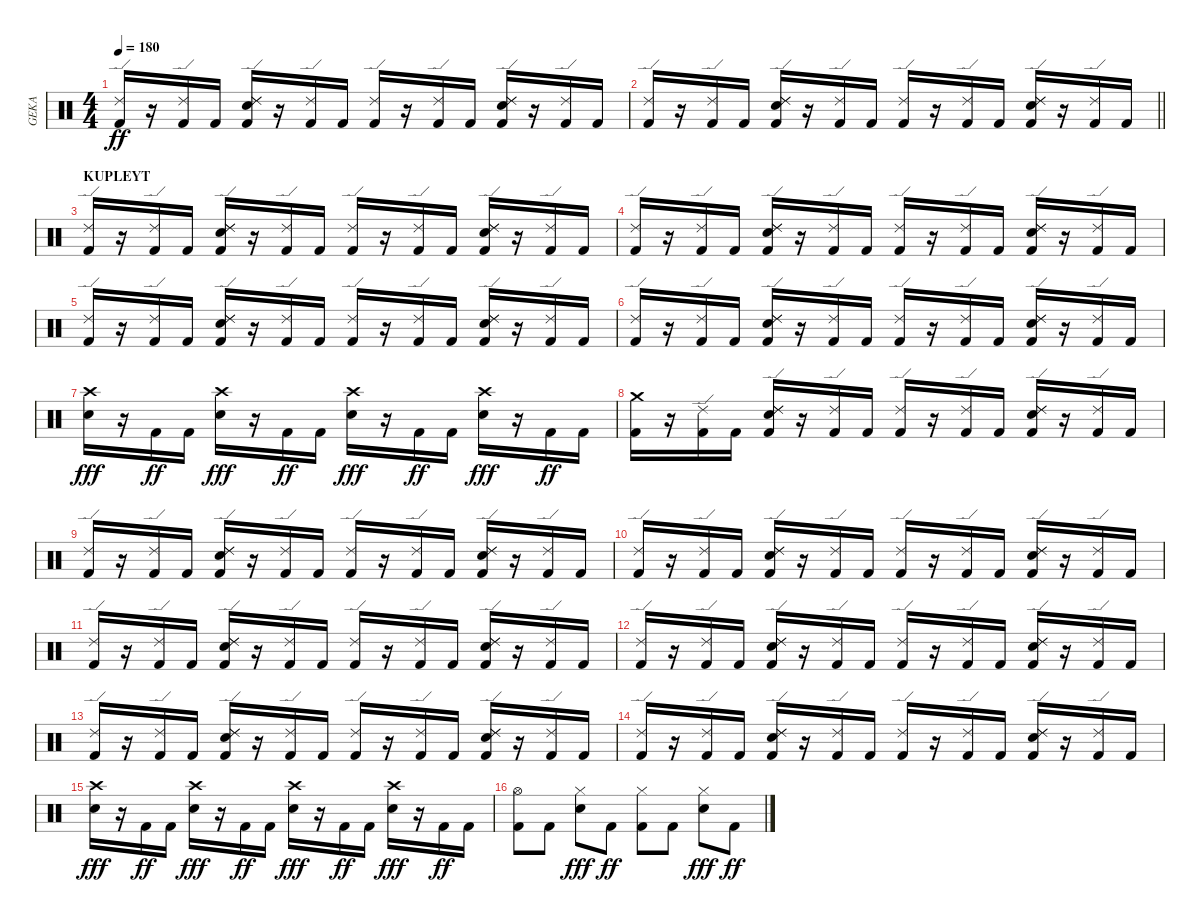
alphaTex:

\track ("GEKA" "GEKA") {instrument percussion}
\staff {score}
\articulation defaults
\ts (4 4)
\tempo 180
\clef neutral
\ks c
("Ride (edge) 2" "Kick (hit) 2").16{dy ff} r.16 ("Ride (edge) 2" "Kick (hit) 2").16 "Kick (hit) 2".16 ("Ride (edge) 2" "Snare (hit) 2" "Kick (hit) 2" "Ride (edge) 2").16 r.16 ("Ride (edge) 2" "Kick (hit) 2").16 "Kick (hit) 2".16 ("Ride (edge) 2" "Kick (hit) 2").16 r.16 ("Ride (edge) 2" "Kick (hit) 2").16 "Kick (hit) 2".16 ("Ride (edge) 2" "Snare (hit) 2" "Kick (hit) 2" "Ride (edge) 2").16 r.16 ("Ride (edge) 2" "Kick (hit) 2").16 "Kick (hit) 2".16 |
\barLineRight lightlight
("Ride (edge) 2" "Kick (hit) 2").16 r.16 ("Ride (edge) 2" "Kick (hit) 2").16 "Kick (hit) 2".16 ("Ride (edge) 2" "Snare (hit) 2" "Kick (hit) 2" "Ride (edge) 2").16 r.16 ("Ride (edge) 2" "Kick (hit) 2").16 "Kick (hit) 2".16 ("Ride (edge) 2" "Kick (hit) 2").16 r.16 ("Ride (edge) 2" "Kick (hit) 2").16 "Kick (hit) 2".16 ("Ride (edge) 2" "Snare (hit) 2" "Kick (hit) 2" "Ride (edge) 2").16 r.16 ("Ride (edge) 2" "Kick (hit) 2").16 "Kick (hit) 2".16 |
\section ("" "KUPLEYT")
("Ride (edge) 2" "Kick (hit) 2").16 r.16 ("Ride (edge) 2" "Kick (hit) 2").16 "Kick (hit) 2".16 ("Ride (edge) 2" "Snare (hit) 2" "Kick (hit) 2" "Ride (edge) 2").16 r.16 ("Ride (edge) 2" "Kick (hit) 2").16 "Kick (hit) 2".16 ("Ride (edge) 2" "Kick (hit) 2").16 r.16 ("Ride (edge) 2" "Kick (hit) 2").16 "Kick (hit) 2".16 ("Ride (edge) 2" "Snare (hit) 2" "Kick (hit) 2" "Ride (edge) 2").16 r.16 ("Ride (edge) 2" "Kick (hit) 2").16 "Kick (hit) 2".16 |
("Ride (edge) 2" "Kick (hit) 2").16 r.16 ("Ride (edge) 2" "Kick (hit) 2").16 "Kick (hit) 2".16 ("Ride (edge) 2" "Snare (hit) 2" "Kick (hit) 2" "Ride (edge) 2").16 r.16 ("Ride (edge) 2" "Kick (hit) 2").16 "Kick (hit) 2".16 ("Ride (edge) 2" "Kick (hit) 2").16 r.16 ("Ride (edge) 2" "Kick (hit) 2").16 "Kick (hit) 2".16 ("Ride (edge) 2" "Snare (hit) 2" "Kick (hit) 2" "Ride (edge) 2").16 r.16 ("Ride (edge) 2" "Kick (hit) 2").16 "Kick (hit) 2".16 |
("Ride (edge) 2" "Kick (hit) 2").16 r.16 ("Ride (edge) 2" "Kick (hit) 2").16 "Kick (hit) 2".16 ("Ride (edge) 2" "Snare (hit) 2" "Kick (hit) 2" "Ride (edge) 2").16 r.16 ("Ride (edge) 2" "Kick (hit) 2").16 "Kick (hit) 2".16 ("Ride (edge) 2" "Kick (hit) 2").16 r.16 ("Ride (edge) 2" "Kick (hit) 2").16 "Kick (hit) 2".16 ("Ride (edge) 2" "Snare (hit) 2" "Kick (hit) 2" "Ride (edge) 2").16 r.16 ("Ride (edge) 2" "Kick (hit) 2").16 "Kick (hit) 2".16 |
("Ride (edge) 2" "Kick (hit) 2").16 r.16 ("Ride (edge) 2" "Kick (hit) 2").16 "Kick (hit) 2".16 ("Ride (edge) 2" "Snare (hit) 2" "Kick (hit) 2" "Ride (edge) 2").16 r.16 ("Ride (edge) 2" "Kick (hit) 2").16 "Kick (hit) 2".16 ("Ride (edge) 2" "Kick (hit) 2").16 r.16 ("Ride (edge) 2" "Kick (hit) 2").16 "Kick (hit) 2".16 ("Ride (edge) 2" "Snare (hit) 2" "Kick (hit) 2" "Ride (edge) 2").16 r.16 ("Ride (edge) 2" "Kick (hit) 2").16 "Kick (hit) 2".16 |
("Crash high (hit)" "Snare (hit) 2").16{dy fff} r.16 "Kick (hit) 2".16{dy ff} "Kick (hit) 2".16 ("Crash high (hit)" "Snare (hit) 2").16{dy fff} r.16 "Kick (hit) 2".16{dy ff} "Kick (hit) 2".16 ("Crash high (hit)" "Snare (hit) 2").16{dy fff} r.16 "Kick (hit) 2".16{dy ff} "Kick (hit) 2".16 ("Crash high (hit)" "Snare (hit) 2").16{dy fff} r.16 "Kick (hit) 2".16{dy ff} "Kick (hit) 2".16 |
("Crash medium (hit)" "Kick (hit) 2").16 r.16 ("Ride (edge) 2" "Kick (hit) 2").16 "Kick (hit) 2".16 ("Ride (edge) 2" "Snare (hit) 2" "Kick (hit) 2" "Ride (edge) 2").16 r.16 ("Ride (edge) 2" "Kick (hit) 2").16 "Kick (hit) 2".16 ("Ride (edge) 2" "Kick (hit) 2").16 r.16 ("Ride (edge) 2" "Kick (hit) 2").16 "Kick (hit) 2".16 ("Ride (edge) 2" "Snare (hit) 2" "Kick (hit) 2" "Ride (edge) 2").16 r.16 ("Ride (edge) 2" "Kick (hit) 2").16 "Kick (hit) 2".16 |
("Ride (edge) 2" "Kick (hit) 2").16 r.16 ("Ride (edge) 2" "Kick (hit) 2").16 "Kick (hit) 2".16 ("Ride (edge) 2" "Snare (hit) 2" "Kick (hit) 2" "Ride (edge) 2").16 r.16 ("Ride (edge) 2" "Kick (hit) 2").16 "Kick (hit) 2".16 ("Ride (edge) 2" "Kick (hit) 2").16 r.16 ("Ride (edge) 2" "Kick (hit) 2").16 "Kick (hit) 2".16 ("Ride (edge) 2" "Snare (hit) 2" "Kick (hit) 2" "Ride (edge) 2").16 r.16 ("Ride (edge) 2" "Kick (hit) 2").16 "Kick (hit) 2".16 |
("Ride (edge) 2" "Kick (hit) 2").16 r.16 ("Ride (edge) 2" "Kick (hit) 2").16 "Kick (hit) 2".16 ("Ride (edge) 2" "Snare (hit) 2" "Kick (hit) 2" "Ride (edge) 2").16 r.16 ("Ride (edge) 2" "Kick (hit) 2").16 "Kick (hit) 2".16 ("Ride (edge) 2" "Kick (hit) 2").16 r.16 ("Ride (edge) 2" "Kick (hit) 2").16 "Kick (hit) 2".16 ("Ride (edge) 2" "Snare (hit) 2" "Kick (hit) 2" "Ride (edge) 2").16 r.16 ("Ride (edge) 2" "Kick (hit) 2").16 "Kick (hit) 2".16 |
("Ride (edge) 2" "Kick (hit) 2").16 r.16 ("Ride (edge) 2" "Kick (hit) 2").16 "Kick (hit) 2".16 ("Ride (edge) 2" "Snare (hit) 2" "Kick (hit) 2" "Ride (edge) 2").16 r.16 ("Ride (edge) 2" "Kick (hit) 2").16 "Kick (hit) 2".16 ("Ride (edge) 2" "Kick (hit) 2").16 r.16 ("Ride (edge) 2" "Kick (hit) 2").16 "Kick (hit) 2".16 ("Ride (edge) 2" "Snare (hit) 2" "Kick (hit) 2" "Ride (edge) 2").16 r.16 ("Ride (edge) 2" "Kick (hit) 2").16 "Kick (hit) 2".16 |
("Ride (edge) 2" "Kick (hit) 2").16 r.16 ("Ride (edge) 2" "Kick (hit) 2").16 "Kick (hit) 2".16 ("Ride (edge) 2" "Snare (hit) 2" "Kick (hit) 2" "Ride (edge) 2").16 r.16 ("Ride (edge) 2" "Kick (hit) 2").16 "Kick (hit) 2".16 ("Ride (edge) 2" "Kick (hit) 2").16 r.16 ("Ride (edge) 2" "Kick (hit) 2").16 "Kick (hit) 2".16 ("Ride (edge) 2" "Snare (hit) 2" "Kick (hit) 2" "Ride (edge) 2").16 r.16 ("Ride (edge) 2" "Kick (hit) 2").16 "Kick (hit) 2".16 |
("Ride (edge) 2" "Kick (hit) 2").16 r.16 ("Ride (edge) 2" "Kick (hit) 2").16 "Kick (hit) 2".16 ("Ride (edge) 2" "Snare (hit) 2" "Kick (hit) 2" "Ride (edge) 2").16 r.16 ("Ride (edge) 2" "Kick (hit) 2").16 "Kick (hit) 2".16 ("Ride (edge) 2" "Kick (hit) 2").16 r.16 ("Ride (edge) 2" "Kick (hit) 2").16 "Kick (hit) 2".16 ("Ride (edge) 2" "Snare (hit) 2" "Kick (hit) 2" "Ride (edge) 2").16 r.16 ("Ride (edge) 2" "Kick (hit) 2").16 "Kick (hit) 2".16 |
("Ride (edge) 2" "Kick (hit) 2").16 r.16 ("Ride (edge) 2" "Kick (hit) 2").16 "Kick (hit) 2".16 ("Ride (edge) 2" "Snare (hit) 2" "Kick (hit) 2" "Ride (edge) 2").16 r.16 ("Ride (edge) 2" "Kick (hit) 2").16 "Kick (hit) 2".16 ("Ride (edge) 2" "Kick (hit) 2").16 r.16 ("Ride (edge) 2" "Kick (hit) 2").16 "Kick (hit) 2".16 ("Ride (edge) 2" "Snare (hit) 2" "Kick (hit) 2" "Ride (edge) 2").16 r.16 ("Ride (edge) 2" "Kick (hit) 2").16 "Kick (hit) 2".16 |
("Crash high (hit)" "Snare (hit) 2").16{dy fff} r.16 "Kick (hit) 2".16{dy ff} "Kick (hit) 2".16 ("Crash high (hit)" "Snare (hit) 2").16{dy fff} r.16 "Kick (hit) 2".16{dy ff} "Kick (hit) 2".16 ("Crash high (hit)" "Snare (hit) 2").16{dy fff} r.16 "Kick (hit) 2".16{dy ff} "Kick (hit) 2".16 ("Crash high (hit)" "Snare (hit) 2").16{dy fff} r.16 "Kick (hit) 2".16{dy ff} "Kick (hit) 2".16 |
("Hi-Hat (open)" "Kick (hit) 2").8 "Kick (hit) 2".8 ("Hi-Hat (closed)" "Snare (hit) 2").8{dy fff} "Kick (hit) 2".8{dy ff} ("Hi-Hat (closed)" "Kick (hit) 2").8 "Kick (hit) 2".8 ("Hi-Hat (closed)" "Snare (hit) 2").8{dy fff} "Kick (hit) 2".8{dy ff}
